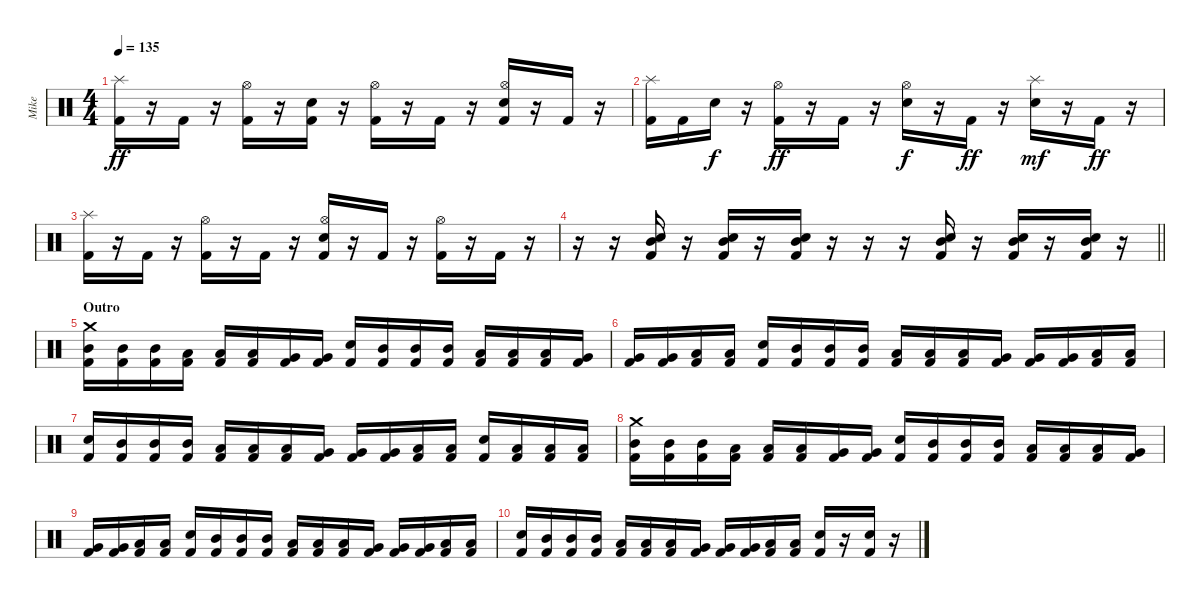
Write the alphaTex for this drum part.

\track ("Mike" "Mike") {instrument percussion}
\staff {score}
\articulation defaults
\ts (4 4)
\tempo 135
\clef neutral
\ks c
("Splash (hit)" "Kick (hit) 2").16{dy ff} r.16 "Kick (hit) 2".16 r.16 ("Hi-Hat (open)" "Kick (hit) 2").16 r.16 ("Snare (hit) 2" "Kick (hit) 2").16 r.16 ("Hi-Hat (open)" "Kick (hit) 2").16 r.16 "Kick (hit) 2".16 r.16 ("Hi-Hat (open)" "Snare (hit) 2" "Kick (hit) 2").16 r.16 "Kick (hit) 2".16 r.16 |
("Splash (hit)" "Kick (hit) 2").16 "Kick (hit) 2".16 "Snare (hit) 2".16{dy f} r.16 ("Hi-Hat (open)" "Kick (hit) 2").16{dy ff} r.16 "Kick (hit) 2".16 r.16 ("Hi-Hat (open)" "Snare (hit) 2").16{dy f} r.16 "Kick (hit) 2".16{dy ff} r.16 ("Splash (hit)" "Snare (hit) 2").16{dy mf} r.16 "Kick (hit) 2".16{dy ff} r.16 |
("Splash (hit)" "Kick (hit) 2").16 r.16 "Kick (hit) 2".16 r.16 ("Hi-Hat (open)" "Kick (hit) 2").16 r.16 "Kick (hit) 2".16 r.16 ("Hi-Hat (open)" "Snare (hit) 2" "Kick (hit) 2").16 r.16 "Kick (hit) 2".16 r.16 ("Hi-Hat (open)" "Kick (hit) 2").16 r.16 "Kick (hit) 2".16 r.16 |
\barLineRight lightlight
r.16 r.16 ("Mid Tom (hit)" "Snare (hit) 2" "Kick (hit) 2").16 r.16 ("Mid Tom (hit)" "Snare (hit) 2" "Kick (hit) 2").16 r.16 ("Mid Tom (hit)" "Snare (hit) 2" "Kick (hit) 2").16 r.16 r.16 r.16 ("Mid Tom (hit)" "Snare (hit) 2" "Kick (hit) 2").16 r.16 ("Mid Tom (hit)" "Snare (hit) 2" "Kick (hit) 2").16 r.16 ("Mid Tom (hit)" "Snare (hit) 2" "Kick (hit) 2").16 r.16 |
\section ("" "Outro")
("Crash medium (hit)" "Mid Tom (hit)" "Kick (hit) 2").16 ("Mid Tom (hit)" "Kick (hit) 2").16 ("Mid Tom (hit)" "Kick (hit) 2").16 ("Low Tom (hit)" "Kick (hit) 2").16 ("Low Tom (hit)" "Kick (hit) 2").16 ("Low Tom (hit)" "Kick (hit) 2").16 ("Very Low Tom (hit)" "Kick (hit) 2").16 ("Very Low Tom (hit)" "Kick (hit) 2").16 ("Snare (hit) 2" "Kick (hit) 2").16 ("Mid Tom (hit)" "Kick (hit) 2").16 ("Mid Tom (hit)" "Kick (hit) 2").16 ("Mid Tom (hit)" "Kick (hit) 2").16 ("Low Tom (hit)" "Kick (hit) 2").16 ("Low Tom (hit)" "Kick (hit) 2").16 ("Low Tom (hit)" "Kick (hit) 2").16 ("Very Low Tom (hit)" "Kick (hit) 2").16 |
("Very Low Tom (hit)" "Kick (hit) 2").16 ("Very Low Tom (hit)" "Kick (hit) 2").16 ("Low Floor Tom (hit)" "Kick (hit) 2").16 ("Low Floor Tom (hit)" "Kick (hit) 2").16 ("Snare (hit) 2" "Kick (hit) 2").16 ("Mid Tom (hit)" "Kick (hit) 2").16 ("Mid Tom (hit)" "Kick (hit) 2").16 ("Mid Tom (hit)" "Kick (hit) 2").16 ("Low Tom (hit)" "Kick (hit) 2").16 ("Low Tom (hit)" "Kick (hit) 2").16 ("Low Tom (hit)" "Kick (hit) 2").16 ("Very Low Tom (hit)" "Kick (hit) 2").16 ("Very Low Tom (hit)" "Kick (hit) 2").16 ("Very Low Tom (hit)" "Kick (hit) 2").16 ("Low Floor Tom (hit)" "Kick (hit) 2").16 ("Low Floor Tom (hit)" "Kick (hit) 2").16 |
("Snare (hit) 2" "Kick (hit) 2").16 ("Mid Tom (hit)" "Kick (hit) 2").16 ("Mid Tom (hit)" "Kick (hit) 2").16 ("Mid Tom (hit)" "Kick (hit) 2").16 ("Low Tom (hit)" "Kick (hit) 2").16 ("Low Tom (hit)" "Kick (hit) 2").16 ("Low Tom (hit)" "Kick (hit) 2").16 ("Very Low Tom (hit)" "Kick (hit) 2").16 ("Very Low Tom (hit)" "Kick (hit) 2").16 ("Very Low Tom (hit)" "Kick (hit) 2").16 ("Low Floor Tom (hit)" "Kick (hit) 2").16 ("Low Floor Tom (hit)" "Kick (hit) 2").16 ("Snare (hit) 2" "Kick (hit) 2").16 ("Low Tom (hit)" "Kick (hit) 2").16 ("Low Tom (hit)" "Kick (hit) 2").16 ("Low Tom (hit)" "Kick (hit) 2").16 |
("Crash medium (hit)" "Mid Tom (hit)" "Kick (hit) 2").16 ("Mid Tom (hit)" "Kick (hit) 2").16 ("Mid Tom (hit)" "Kick (hit) 2").16 ("Low Tom (hit)" "Kick (hit) 2").16 ("Low Tom (hit)" "Kick (hit) 2").16 ("Low Tom (hit)" "Kick (hit) 2").16 ("Very Low Tom (hit)" "Kick (hit) 2").16 ("Very Low Tom (hit)" "Kick (hit) 2").16 ("Snare (hit) 2" "Kick (hit) 2").16 ("Mid Tom (hit)" "Kick (hit) 2").16 ("Mid Tom (hit)" "Kick (hit) 2").16 ("Mid Tom (hit)" "Kick (hit) 2").16 ("Low Tom (hit)" "Kick (hit) 2").16 ("Low Tom (hit)" "Kick (hit) 2").16 ("Low Tom (hit)" "Kick (hit) 2").16 ("Very Low Tom (hit)" "Kick (hit) 2").16 |
("Very Low Tom (hit)" "Kick (hit) 2").16 ("Very Low Tom (hit)" "Kick (hit) 2").16 ("Low Floor Tom (hit)" "Kick (hit) 2").16 ("Low Floor Tom (hit)" "Kick (hit) 2").16 ("Snare (hit) 2" "Kick (hit) 2").16 ("Mid Tom (hit)" "Kick (hit) 2").16 ("Mid Tom (hit)" "Kick (hit) 2").16 ("Mid Tom (hit)" "Kick (hit) 2").16 ("Low Tom (hit)" "Kick (hit) 2").16 ("Low Tom (hit)" "Kick (hit) 2").16 ("Low Tom (hit)" "Kick (hit) 2").16 ("Very Low Tom (hit)" "Kick (hit) 2").16 ("Very Low Tom (hit)" "Kick (hit) 2").16 ("Very Low Tom (hit)" "Kick (hit) 2").16 ("Low Floor Tom (hit)" "Kick (hit) 2").16 ("Low Floor Tom (hit)" "Kick (hit) 2").16 |
("Snare (hit) 2" "Kick (hit) 2").16 ("Mid Tom (hit)" "Kick (hit) 2").16 ("Mid Tom (hit)" "Kick (hit) 2").16 ("Mid Tom (hit)" "Kick (hit) 2").16 ("Low Tom (hit)" "Kick (hit) 2").16 ("Low Tom (hit)" "Kick (hit) 2").16 ("Low Tom (hit)" "Kick (hit) 2").16 ("Very Low Tom (hit)" "Kick (hit) 2").16 ("Very Low Tom (hit)" "Kick (hit) 2").16 ("Very Low Tom (hit)" "Kick (hit) 2").16 ("Low Floor Tom (hit)" "Kick (hit) 2").16 ("Low Floor Tom (hit)" "Kick (hit) 2").16 ("Snare (hit) 2" "Kick (hit) 2").16 r.16 ("Snare (hit) 2" "Kick (hit) 2").16 r.16
